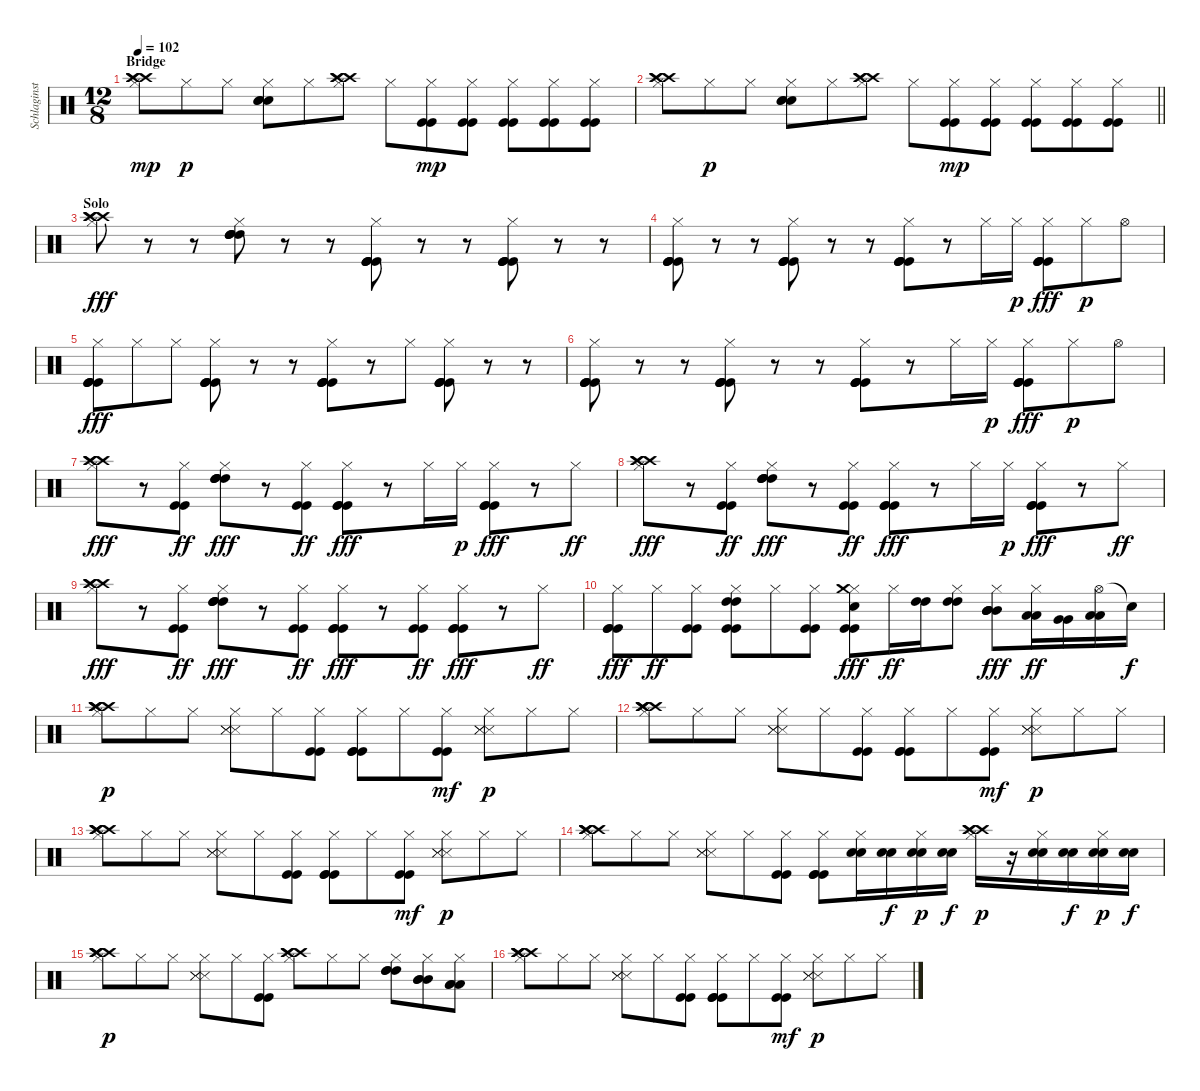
\track ("Schlaginstrumente - Auswahl" "Schlaginst") {instrument percussion}
\staff {score}
\articulation defaults
\ts (12 8)
\section ("" "Bridge")
\tempo 102
\clef neutral
\ks c
("Hi-Hat (closed)" "Crash high (hit)" "Crash high (hit)" "Crash high (hit)").8{dy mp} "Hi-Hat (closed)".8{dy p} "Hi-Hat (closed)".8 ("Hi-Hat (closed)" "Snare (hit) 2" "Snare (hit) 2" "Metronome (bell)").8 "Hi-Hat (closed)".8 ("Hi-Hat (closed)" "Crash high (hit)" "Crash high (hit)" "Crash high (hit)").8 "Hi-Hat (closed)".8 ("Hi-Hat (closed)" "Kick (hit)" "Kick (hit)").8{dy mp} ("Hi-Hat (closed)" "Kick (hit)" "Kick (hit)").8 ("Hi-Hat (closed)" "Kick (hit)" "Kick (hit)").8 ("Hi-Hat (closed)" "Kick (hit)" "Kick (hit)").8 ("Hi-Hat (closed)" "Kick (hit)" "Kick (hit)").8 |
\barLineRight lightlight
("Hi-Hat (closed)" "Crash high (hit)" "Crash high (hit)" "Crash high (hit)").8 "Hi-Hat (closed)".8{dy p} "Hi-Hat (closed)".8 ("Hi-Hat (closed)" "Snare (hit) 2" "Snare (hit) 2" "Metronome (bell)").8 "Hi-Hat (closed)".8 ("Hi-Hat (closed)" "Crash high (hit)" "Crash high (hit)" "Crash high (hit)").8 "Hi-Hat (closed)".8 ("Hi-Hat (closed)" "Kick (hit)" "Kick (hit)").8{dy mp} ("Hi-Hat (closed)" "Kick (hit)" "Kick (hit)").8 ("Hi-Hat (closed)" "Kick (hit)" "Kick (hit)").8 ("Hi-Hat (closed)" "Kick (hit)" "Kick (hit)").8 ("Hi-Hat (closed)" "Kick (hit)" "Kick (hit)").8 |
\section ("" "Solo")
("Hi-Hat (closed)" "Crash high (hit)" "Crash high (hit)" "Crash high (hit)").8{dy fff volume 9} r.8 r.8 ("Hi-Hat (closed)" "High Tom (hit)" "High Tom (hit)" "High Tom (hit)" "High Tom (hit)").8 r.8 r.8 ("Hi-Hat (closed)" "Kick (hit)" "Kick (hit)" "Kick (hit)" "Kick (hit)").8 r.8 r.8 ("Hi-Hat (closed)" "Kick (hit)" "Kick (hit)" "Kick (hit)" "Kick (hit)").8 r.8 r.8 |
("Hi-Hat (closed)" "Kick (hit)" "Kick (hit)" "Kick (hit)" "Kick (hit)").8 r.8 r.8 ("Hi-Hat (closed)" "Kick (hit)" "Kick (hit)" "Kick (hit)" "Kick (hit)").8 r.8 r.8 ("Hi-Hat (closed)" "Kick (hit)" "Kick (hit)" "Kick (hit)" "Kick (hit)").8 r.8 "Hi-Hat (closed)".16 "Hi-Hat (closed)".16{dy p} ("Hi-Hat (closed)" "Kick (hit)" "Kick (hit)" "Kick (hit)" "Kick (hit)").8{dy fff} "Hi-Hat (closed)".8{dy p} "Hi-Hat (open)".8 |
("Hi-Hat (closed)" "Kick (hit)" "Kick (hit)" "Kick (hit)" "Kick (hit)").8{dy fff} "Hi-Hat (closed)".8 "Hi-Hat (closed)".8 ("Hi-Hat (closed)" "Kick (hit)" "Kick (hit)" "Kick (hit)" "Kick (hit)").8 r.8 r.8 ("Hi-Hat (closed)" "Kick (hit)" "Kick (hit)" "Kick (hit)" "Kick (hit)").8 r.8 "Hi-Hat (closed)".8 ("Hi-Hat (closed)" "Kick (hit)" "Kick (hit)" "Kick (hit)" "Kick (hit)").8 r.8 r.8 |
("Hi-Hat (closed)" "Kick (hit)" "Kick (hit)" "Kick (hit)" "Kick (hit)").8 r.8 r.8 ("Hi-Hat (closed)" "Kick (hit)" "Kick (hit)" "Kick (hit)" "Kick (hit)").8 r.8 r.8 ("Hi-Hat (closed)" "Kick (hit)" "Kick (hit)" "Kick (hit)" "Kick (hit)").8 r.8 "Hi-Hat (closed)".16 "Hi-Hat (closed)".16{dy p} ("Hi-Hat (closed)" "Kick (hit)" "Kick (hit)" "Kick (hit)" "Kick (hit)").8{dy fff} "Hi-Hat (closed)".8{dy p} "Hi-Hat (open)".8 |
("Hi-Hat (closed)" "Crash high (hit)" "Crash high (hit)" "Crash high (hit)").8{dy fff} r.8 ("Hi-Hat (closed)" "Kick (hit)" "Kick (hit)").8{dy ff} ("Hi-Hat (closed)" "High Tom (hit)" "High Tom (hit)" "High Tom (hit)" "High Tom (hit)").8{dy fff} r.8 ("Hi-Hat (closed)" "Kick (hit)" "Kick (hit)").8{dy ff} ("Hi-Hat (closed)" "Kick (hit)" "Kick (hit)" "Kick (hit)").8{dy fff} r.8 "Hi-Hat (closed)".16 "Hi-Hat (closed)".16{dy p} ("Hi-Hat (closed)" "Kick (hit)" "Kick (hit)" "Kick (hit)").8{dy fff} r.8 "Hi-Hat (closed)".8{dy ff} |
("Hi-Hat (closed)" "Crash high (hit)" "Crash high (hit)" "Crash high (hit)").8{dy fff} r.8 ("Hi-Hat (closed)" "Kick (hit)" "Kick (hit)").8{dy ff} ("Hi-Hat (closed)" "High Tom (hit)" "High Tom (hit)" "High Tom (hit)" "High Tom (hit)").8{dy fff} r.8 ("Hi-Hat (closed)" "Kick (hit)" "Kick (hit)").8{dy ff} ("Hi-Hat (closed)" "Kick (hit)" "Kick (hit)" "Kick (hit)").8{dy fff} r.8 "Hi-Hat (closed)".16 "Hi-Hat (closed)".16{dy p} ("Hi-Hat (closed)" "Kick (hit)" "Kick (hit)" "Kick (hit)").8{dy fff} r.8 "Hi-Hat (closed)".8{dy ff} |
("Hi-Hat (closed)" "Crash high (hit)" "Crash high (hit)" "Crash high (hit)").8{dy fff} r.8 ("Hi-Hat (closed)" "Kick (hit)" "Kick (hit)").8{dy ff} ("Hi-Hat (closed)" "High Tom (hit)" "High Tom (hit)" "High Tom (hit)" "High Tom (hit)").8{dy fff} r.8 ("Hi-Hat (closed)" "Kick (hit)" "Kick (hit)").8{dy ff} ("Hi-Hat (closed)" "Kick (hit)" "Kick (hit)" "Kick (hit)").8{dy fff} r.8 ("Hi-Hat (closed)" "Kick (hit)" "Kick (hit)").8{dy ff} ("Hi-Hat (closed)" "Kick (hit)" "Kick (hit)" "Kick (hit)").8{dy fff} r.8 "Hi-Hat (closed)".8{dy ff} |
("Hi-Hat (closed)" "Kick (hit)" "Kick (hit)" "Kick (hit)").8{dy fff} "Hi-Hat (closed)".8{dy ff} ("Hi-Hat (closed)" "Kick (hit)" "Kick (hit)").8 ("Hi-Hat (closed)" "Kick (hit)" "Kick (hit)" "High Tom (hit)" "High Tom (hit)").8 "Hi-Hat (closed)".8 ("Hi-Hat (closed)" "Kick (hit)" "Kick (hit)").8 ("Hi-Hat (closed)" "Snare (hit) 2" "Kick (hit)" "Kick (hit)" "Crash medium (hit)").8{dy fff volume 11} "Hi-Hat (closed)".16{dy ff} ("High Tom (hit)" "High Tom (hit)").16 ("Hi-Hat (closed)" "High Tom (hit)" "High Tom (hit)").8 ("Hi-Hat (closed)" "Mid Tom (hit)" "Mid Tom (hit)" "Mid Tom (hit)" "Mid Tom (hit)").8{dy fff} ("Hi-Hat (closed)" "Low Tom (hit)" "Low Tom (hit)").16{dy ff} ("Very Low Tom (hit)" "Very Low Tom (hit)").16 ("Hi-Hat (open)" "Low Floor Tom (hit)" "Low Floor Tom (hit)").16 "Snare (hit)"{t}.16{dy f} |
("Hi-Hat (closed)" "Crash high (hit)" "Crash high (hit)" "Crash high (hit)" "Crash high (hit)").8{dy p} "Hi-Hat (closed)".8 "Hi-Hat (closed)".8 ("Hi-Hat (closed)" "Snare (side stick) 3" "Snare (side stick) 3" "Snare (side stick) 3").8 "Hi-Hat (closed)".8 ("Hi-Hat (closed)" "Kick (hit)" "Kick (hit)").8 ("Hi-Hat (closed)" "Kick (hit)" "Kick (hit)" "Kick (hit)").8 "Hi-Hat (closed)".8 ("Hi-Hat (closed)" "Kick (hit)" "Kick (hit)").8{dy mf} ("Hi-Hat (closed)" "Snare (side stick) 3" "Snare (side stick) 3" "Snare (side stick) 3").8{dy p} "Hi-Hat (closed)".8 "Hi-Hat (closed)".8 |
("Hi-Hat (closed)" "Crash high (hit)" "Crash high (hit)" "Crash high (hit)" "Crash high (hit)").8 "Hi-Hat (closed)".8 "Hi-Hat (closed)".8 ("Hi-Hat (closed)" "Snare (side stick) 3" "Snare (side stick) 3" "Snare (side stick) 3").8 "Hi-Hat (closed)".8 ("Hi-Hat (closed)" "Kick (hit)" "Kick (hit)").8 ("Hi-Hat (closed)" "Kick (hit)" "Kick (hit)" "Kick (hit)").8 "Hi-Hat (closed)".8 ("Hi-Hat (closed)" "Kick (hit)" "Kick (hit)").8{dy mf} ("Hi-Hat (closed)" "Snare (side stick) 3" "Snare (side stick) 3" "Snare (side stick) 3").8{dy p} "Hi-Hat (closed)".8 "Hi-Hat (closed)".8 |
("Hi-Hat (closed)" "Crash high (hit)" "Crash high (hit)" "Crash high (hit)" "Crash high (hit)").8 "Hi-Hat (closed)".8 "Hi-Hat (closed)".8 ("Hi-Hat (closed)" "Snare (side stick) 3" "Snare (side stick) 3" "Snare (side stick) 3").8 "Hi-Hat (closed)".8 ("Hi-Hat (closed)" "Kick (hit)" "Kick (hit)").8 ("Hi-Hat (closed)" "Kick (hit)" "Kick (hit)" "Kick (hit)").8 "Hi-Hat (closed)".8 ("Hi-Hat (closed)" "Kick (hit)" "Kick (hit)").8{dy mf} ("Hi-Hat (closed)" "Snare (side stick) 3" "Snare (side stick) 3" "Snare (side stick) 3").8{dy p} "Hi-Hat (closed)".8 "Hi-Hat (closed)".8 |
("Hi-Hat (closed)" "Crash high (hit)" "Crash high (hit)" "Crash high (hit)" "Crash high (hit)").8 "Hi-Hat (closed)".8 "Hi-Hat (closed)".8 ("Hi-Hat (closed)" "Snare (side stick) 3" "Snare (side stick) 3" "Snare (side stick) 3").8 "Hi-Hat (closed)".8 ("Hi-Hat (closed)" "Kick (hit)" "Kick (hit)").8 ("Hi-Hat (closed)" "Kick (hit)" "Kick (hit)" "Kick (hit)").8 ("Hi-Hat (closed)" "Snare (hit) 2" "Snare (hit) 2").16 ("Snare (hit) 2" "Snare (hit) 2").16{dy f} ("Hi-Hat (closed)" "Snare (hit) 2" "Snare (hit) 2").16{dy p} ("Snare (hit) 2" "Snare (hit) 2").16{dy f} ("Hi-Hat (closed)" "Crash high (hit)" "Crash high (hit)" "Crash high (hit)").16{dy p} r.16 ("Hi-Hat (closed)" "Snare (hit) 2" "Snare (hit) 2").16 ("Snare (hit) 2" "Snare (hit) 2").16{dy f} ("Hi-Hat (closed)" "Snare (hit) 2" "Snare (hit) 2").16{dy p} ("Snare (hit) 2" "Snare (hit) 2").16{dy f} |
("Hi-Hat (closed)" "Crash high (hit)" "Crash high (hit)" "Crash high (hit)" "Crash high (hit)").8{dy p} "Hi-Hat (closed)".8 "Hi-Hat (closed)".8 ("Hi-Hat (closed)" "Snare (side stick) 3" "Snare (side stick) 3" "Snare (side stick) 3").8 "Hi-Hat (closed)".8 ("Hi-Hat (closed)" "Kick (hit)" "Kick (hit)").8 ("Hi-Hat (closed)" "Crash high (hit)" "Crash high (hit)" "Crash high (hit)").8 "Hi-Hat (closed)".8 "Hi-Hat (closed)".8 ("Hi-Hat (closed)" "High Tom (hit)" "High Tom (hit)" "High Tom (hit)").8 ("Hi-Hat (closed)" "Mid Tom (hit)" "Mid Tom (hit)" "Mid Tom (hit)").8 ("Hi-Hat (closed)" "Low Tom (hit)" "Low Tom (hit)" "Low Tom (hit)").8 |
("Hi-Hat (closed)" "Crash high (hit)" "Crash high (hit)" "Crash high (hit)" "Crash high (hit)").8 "Hi-Hat (closed)".8 "Hi-Hat (closed)".8 ("Hi-Hat (closed)" "Snare (side stick) 3" "Snare (side stick) 3" "Snare (side stick) 3").8 "Hi-Hat (closed)".8 ("Hi-Hat (closed)" "Kick (hit)" "Kick (hit)").8 ("Hi-Hat (closed)" "Kick (hit)" "Kick (hit)" "Kick (hit)").8 "Hi-Hat (closed)".8 ("Hi-Hat (closed)" "Kick (hit)" "Kick (hit)").8{dy mf} ("Hi-Hat (closed)" "Snare (side stick) 3" "Snare (side stick) 3" "Snare (side stick) 3").8{dy p} "Hi-Hat (closed)".8 "Hi-Hat (closed)".8
